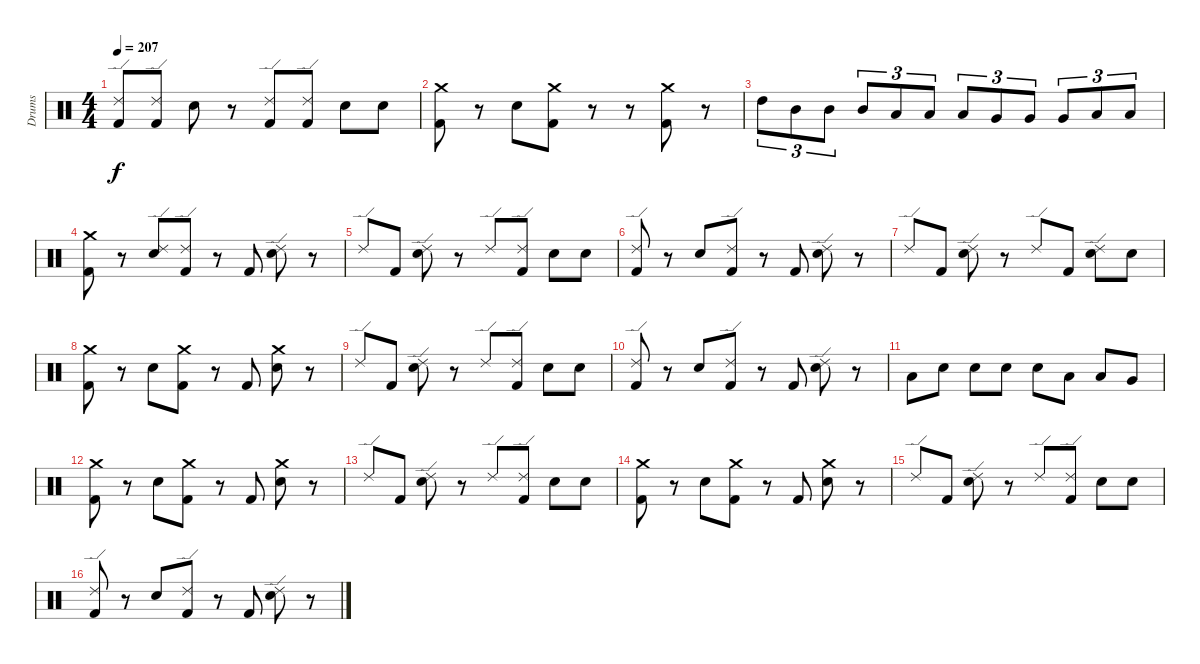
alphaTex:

\track ("Drums" "Drums") {instrument percussion}
\staff {score}
\articulation defaults
\ts (4 4)
\tempo 207
\clef neutral
\ks c
("Ride (edge) 2" "Kick (hit) 2").8{dy f} ("Ride (edge) 2" "Kick (hit) 2").8 "Snare (hit) 2".8 r.8 ("Ride (edge) 2" "Kick (hit) 2").8 ("Ride (edge) 2" "Kick (hit) 2").8 "Snare (hit) 2".8 "Snare (hit) 2".8 |
("Crash medium (hit)" "Kick (hit) 2").8 r.8 "Snare (hit) 2".8 ("Crash medium (hit)" "Kick (hit) 2").8 r.8 r.8 ("Crash medium (hit)" "Kick (hit) 2").8 r.8 |
"High Tom (hit)".8{tu (3 2)} "Mid Tom (hit)".8{tu (3 2)} "Mid Tom (hit)".8{tu (3 2)} "Mid Tom (hit)".8{tu (3 2)} "Low Tom (hit)".8{tu (3 2)} "Low Tom (hit)".8{tu (3 2)} "Low Tom (hit)".8{tu (3 2)} "Very Low Tom (hit)".8{tu (3 2)} "Very Low Tom (hit)".8{tu (3 2)} "Very Low Tom (hit)".8{tu (3 2)} "Low Floor Tom (hit)".8{tu (3 2)} "Low Floor Tom (hit)".8{tu (3 2)} |
("Crash medium (hit)" "Kick (hit) 2").8 r.8 ("Ride (edge) 2" "Snare (hit) 2").8 ("Ride (edge) 2" "Kick (hit) 2").8 r.8 "Kick (hit) 2".8 ("Ride (edge) 2" "Snare (hit) 2").8 r.8 |
"Ride (edge) 2".8 "Kick (hit) 2".8 ("Ride (edge) 2" "Snare (hit) 2").8 r.8 "Ride (edge) 2".8 ("Ride (edge) 2" "Kick (hit) 2").8 "Snare (hit) 2".8 "Snare (hit) 2".8 |
("Ride (edge) 2" "Kick (hit) 2").8 r.8 "Snare (hit) 2".8 ("Ride (edge) 2" "Kick (hit) 2").8 r.8 "Kick (hit) 2".8 ("Ride (edge) 2" "Snare (hit) 2").8 r.8 |
"Ride (edge) 2".8 "Kick (hit) 2".8 ("Ride (edge) 2" "Snare (hit) 2").8 r.8 "Ride (edge) 2".8 "Kick (hit) 2".8 ("Ride (edge) 2" "Snare (hit) 2").8 "Snare (hit) 2".8 |
("Crash medium (hit)" "Kick (hit) 2").8 r.8 "Snare (hit) 2".8 ("Crash medium (hit)" "Kick (hit) 2").8 r.8 "Kick (hit) 2".8 ("Crash medium (hit)" "Snare (hit) 2").8 r.8 |
"Ride (edge) 2".8 "Kick (hit) 2".8 ("Ride (edge) 2" "Snare (hit) 2").8 r.8 "Ride (edge) 2".8 ("Ride (edge) 2" "Kick (hit) 2").8 "Snare (hit) 2".8 "Snare (hit) 2".8 |
("Ride (edge) 2" "Kick (hit) 2").8 r.8 "Snare (hit) 2".8 ("Ride (edge) 2" "Kick (hit) 2").8 r.8 "Kick (hit) 2".8 ("Ride (edge) 2" "Snare (hit) 2").8 r.8 |
"Low Tom (hit)".8 "Snare (hit) 2".8 "Snare (hit) 2".8 "Snare (hit) 2".8 "Snare (hit) 2".8 "Low Tom (hit)".8 "Low Tom (hit)".8 "Very Low Tom (hit)".8 |
("Crash medium (hit)" "Kick (hit) 2").8 r.8 "Snare (hit) 2".8 ("Crash medium (hit)" "Kick (hit) 2").8 r.8 "Kick (hit) 2".8 ("Crash medium (hit)" "Snare (hit) 2").8 r.8 |
"Ride (edge) 2".8 "Kick (hit) 2".8 ("Ride (edge) 2" "Snare (hit) 2").8 r.8 "Ride (edge) 2".8 ("Ride (edge) 2" "Kick (hit) 2").8 "Snare (hit) 2".8 "Snare (hit) 2".8 |
("Crash medium (hit)" "Kick (hit) 2").8 r.8 "Snare (hit) 2".8 ("Crash medium (hit)" "Kick (hit) 2").8 r.8 "Kick (hit) 2".8 ("Crash medium (hit)" "Snare (hit) 2").8 r.8 |
"Ride (edge) 2".8 "Kick (hit) 2".8 ("Ride (edge) 2" "Snare (hit) 2").8 r.8 "Ride (edge) 2".8 ("Ride (edge) 2" "Kick (hit) 2").8 "Snare (hit) 2".8 "Snare (hit) 2".8 |
("Ride (edge) 2" "Kick (hit) 2").8 r.8 "Snare (hit) 2".8 ("Ride (edge) 2" "Kick (hit) 2").8 r.8 "Kick (hit) 2".8 ("Ride (edge) 2" "Snare (hit) 2").8 r.8
